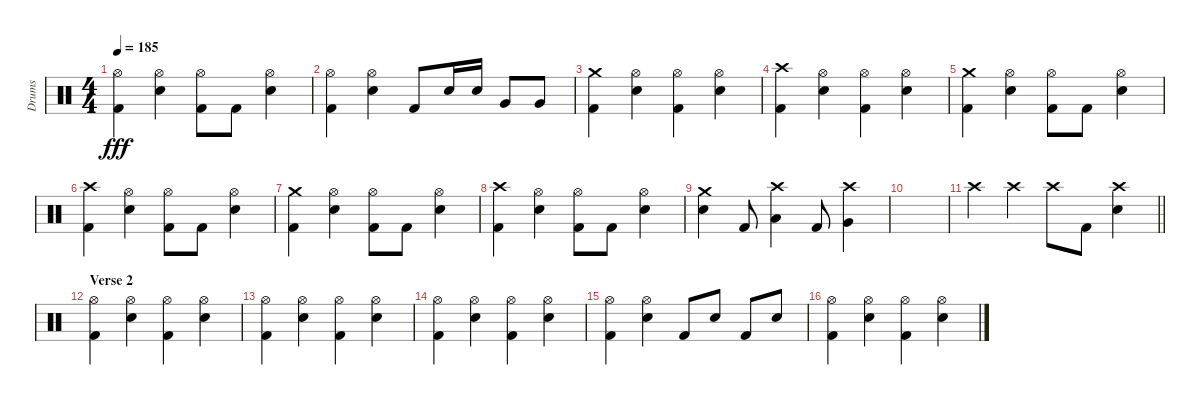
\track ("Drums" "Drums") {instrument percussion}
\staff {score}
\articulation defaults
\ts (4 4)
\tempo 185
\clef neutral
\ks c
("Hi-Hat (open)" "Kick (hit) 2").4{dy fff} ("Hi-Hat (open)" "Electric Snare (hit)").4 ("Hi-Hat (open)" "Kick (hit) 2").8 "Kick (hit) 2".8 ("Hi-Hat (open)" "Electric Snare (hit)").4 |
("Hi-Hat (open)" "Kick (hit) 2").4 ("Hi-Hat (open)" "Electric Snare (hit)").4 "Kick (hit) 2".8 "Electric Snare (hit)".16 "Electric Snare (hit)".16 "Very Low Tom (hit)".8 "Very Low Tom (hit)".8 |
("Crash medium (hit)" "Kick (hit) 2").4 ("Hi-Hat (open)" "Electric Snare (hit)").4 ("Hi-Hat (open)" "Kick (hit) 2").4 ("Hi-Hat (open)" "Electric Snare (hit)").4 |
("Crash high (hit)" "Kick (hit) 2").4 ("Hi-Hat (open)" "Electric Snare (hit)").4 ("Hi-Hat (open)" "Kick (hit) 2").4 ("Hi-Hat (open)" "Electric Snare (hit)").4 |
("Crash medium (hit)" "Kick (hit) 2").4 ("Hi-Hat (open)" "Electric Snare (hit)").4 ("Hi-Hat (open)" "Kick (hit) 2").8 "Kick (hit) 2".8 ("Hi-Hat (open)" "Electric Snare (hit)").4 |
("Crash high (hit)" "Kick (hit) 2").4 ("Hi-Hat (open)" "Electric Snare (hit)").4 ("Hi-Hat (open)" "Kick (hit) 2").8 "Kick (hit) 2".8 ("Hi-Hat (open)" "Electric Snare (hit)").4 |
("Crash medium (hit)" "Kick (hit) 2").4 ("Hi-Hat (open)" "Electric Snare (hit)").4 ("Hi-Hat (open)" "Kick (hit) 2").8 "Kick (hit) 2".8 ("Hi-Hat (open)" "Electric Snare (hit)").4 |
("Crash high (hit)" "Kick (hit) 2").4 ("Hi-Hat (open)" "Electric Snare (hit)").4 ("Hi-Hat (open)" "Kick (hit) 2").8 "Kick (hit) 2".8 ("Hi-Hat (open)" "Electric Snare (hit)").4 |
("Crash medium (hit)" "Electric Snare (hit)").4 "Kick (hit) 2".8 ("Crash high (hit)" "Low Tom (hit)").4 "Kick (hit) 2".8 ("Crash high (hit)" "Very Low Tom (hit)").4 |
|
\barLineRight lightlight "Crash high (hit)".4 "Crash high (hit)".4 "Crash high (hit)".8 "Kick (hit) 2".8
("Crash high (hit)" "Electric Snare (hit)").4 |
\section ("" "Verse 2")
("Hi-Hat (open)" "Kick (hit) 2").4 ("Hi-Hat (open)" "Electric Snare (hit)").4 ("Hi-Hat (open)" "Kick (hit) 2").4 ("Hi-Hat (open)" "Electric Snare (hit)").4 |
("Hi-Hat (open)" "Kick (hit) 2").4 ("Hi-Hat (open)" "Electric Snare (hit)").4 ("Hi-Hat (open)" "Kick (hit) 2").4 ("Hi-Hat (open)" "Electric Snare (hit)").4 |
("Hi-Hat (open)" "Kick (hit) 2").4 ("Hi-Hat (open)" "Electric Snare (hit)").4 ("Hi-Hat (open)" "Kick (hit) 2").4 ("Hi-Hat (open)" "Electric Snare (hit)").4 |
("Hi-Hat (open)" "Kick (hit) 2").4 ("Hi-Hat (open)" "Electric Snare (hit)").4 "Kick (hit) 2".8 "Electric Snare (hit)".8 "Kick (hit) 2".8 "Electric Snare (hit)".8 |
("Hi-Hat (open)" "Kick (hit) 2").4 ("Hi-Hat (open)" "Electric Snare (hit)").4 ("Hi-Hat (open)" "Kick (hit) 2").4 ("Hi-Hat (open)" "Electric Snare (hit)").4
